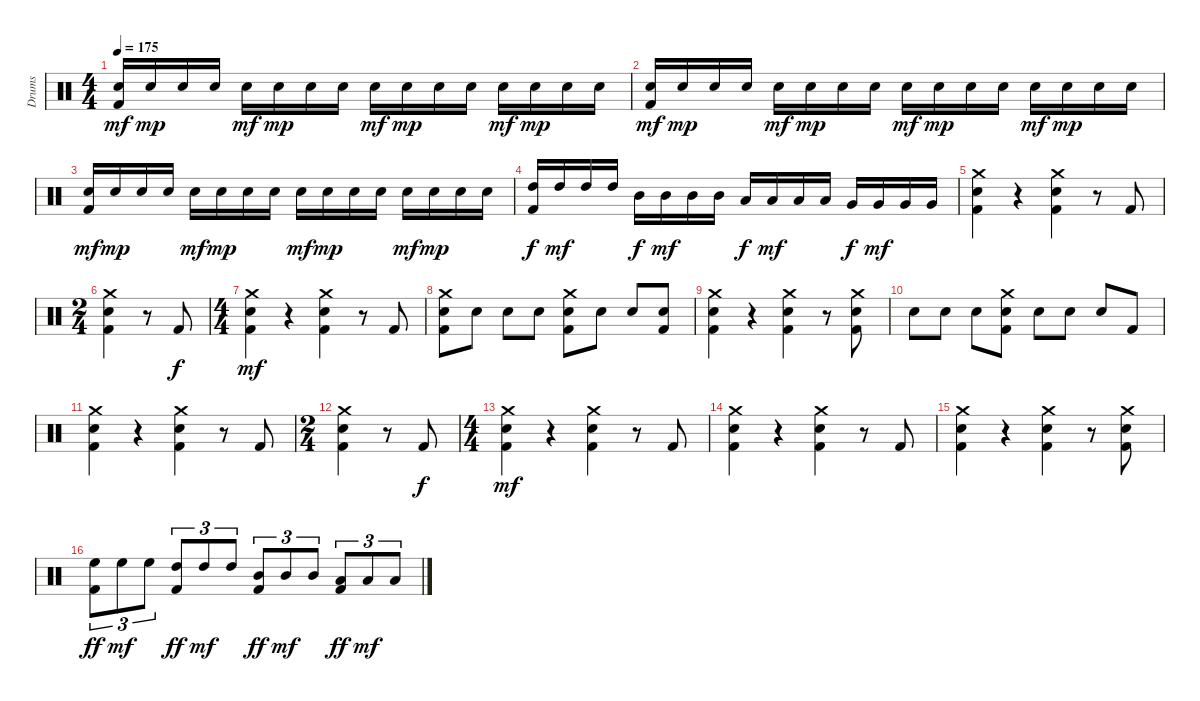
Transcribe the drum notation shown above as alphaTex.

\track ("Drums" "Drums") {instrument percussion}
\staff {score}
\articulation defaults
\ts (4 4)
\tempo 175
\clef neutral
\ks c
("Electric Snare (hit)" "Kick (hit) 2").16{dy mf} "Electric Snare (hit)".16{dy mp} "Electric Snare (hit)".16 "Electric Snare (hit)".16 "Electric Snare (hit)".16{dy mf} "Electric Snare (hit)".16{dy mp} "Electric Snare (hit)".16 "Electric Snare (hit)".16 "Electric Snare (hit)".16{dy mf} "Electric Snare (hit)".16{dy mp} "Electric Snare (hit)".16 "Electric Snare (hit)".16 "Electric Snare (hit)".16{dy mf} "Electric Snare (hit)".16{dy mp} "Electric Snare (hit)".16 "Electric Snare (hit)".16 |
("Electric Snare (hit)" "Kick (hit) 2").16{dy mf} "Electric Snare (hit)".16{dy mp} "Electric Snare (hit)".16 "Electric Snare (hit)".16 "Electric Snare (hit)".16{dy mf} "Electric Snare (hit)".16{dy mp} "Electric Snare (hit)".16 "Electric Snare (hit)".16 "Electric Snare (hit)".16{dy mf} "Electric Snare (hit)".16{dy mp} "Electric Snare (hit)".16 "Electric Snare (hit)".16 "Electric Snare (hit)".16{dy mf} "Electric Snare (hit)".16{dy mp} "Electric Snare (hit)".16 "Electric Snare (hit)".16 |
("Electric Snare (hit)" "Kick (hit) 2").16{dy mf} "Electric Snare (hit)".16{dy mp} "Electric Snare (hit)".16 "Electric Snare (hit)".16 "Electric Snare (hit)".16{dy mf} "Electric Snare (hit)".16{dy mp} "Electric Snare (hit)".16 "Electric Snare (hit)".16 "Electric Snare (hit)".16{dy mf} "Electric Snare (hit)".16{dy mp} "Electric Snare (hit)".16 "Electric Snare (hit)".16 "Electric Snare (hit)".16{dy mf} "Electric Snare (hit)".16{dy mp} "Electric Snare (hit)".16 "Electric Snare (hit)".16 |
("High Tom (hit)" "Kick (hit) 2").16{dy f} "High Tom (hit)".16{dy mf} "High Tom (hit)".16 "High Tom (hit)".16 "Mid Tom (hit)".16{dy f} "Mid Tom (hit)".16{dy mf} "Mid Tom (hit)".16 "Mid Tom (hit)".16 "Low Tom (hit)".16{dy f} "Low Tom (hit)".16{dy mf} "Low Tom (hit)".16 "Low Tom (hit)".16 "Very Low Tom (hit)".16{dy f} "Very Low Tom (hit)".16{dy mf} "Very Low Tom (hit)".16 "Very Low Tom (hit)".16 |
("Crash medium (hit)" "Electric Snare (hit)" "Kick (hit) 2").4 r.4 ("Crash medium (hit)" "Electric Snare (hit)" "Kick (hit) 2").4 r.8 "Kick (hit) 2".8 |
\ts (2 4)
("Crash medium (hit)" "Electric Snare (hit)" "Kick (hit) 2").4 r.8 "Kick (hit) 2".8{dy f} |
\ts (4 4)
("Crash medium (hit)" "Electric Snare (hit)" "Kick (hit) 2").4{dy mf} r.4 ("Crash medium (hit)" "Electric Snare (hit)" "Kick (hit) 2").4 r.8 "Kick (hit) 2".8 |
("Crash medium (hit)" "Electric Snare (hit)" "Kick (hit) 2").8 "Electric Snare (hit)".8 "Electric Snare (hit)".8 "Electric Snare (hit)".8 ("Crash medium (hit)" "Electric Snare (hit)" "Kick (hit) 2").8 "Electric Snare (hit)".8 "Electric Snare (hit)".8 ("Electric Snare (hit)" "Kick (hit) 2").8 |
("Crash medium (hit)" "Electric Snare (hit)" "Kick (hit) 2").4 r.4 ("Crash medium (hit)" "Electric Snare (hit)" "Kick (hit) 2").4 r.8 ("Crash medium (hit)" "Electric Snare (hit)" "Kick (hit) 2").8 |
"Electric Snare (hit)".8 "Electric Snare (hit)".8 "Electric Snare (hit)".8 ("Crash medium (hit)" "Electric Snare (hit)" "Kick (hit) 2").8 "Electric Snare (hit)".8 "Electric Snare (hit)".8 "Electric Snare (hit)".8 "Kick (hit) 2".8 |
("Crash medium (hit)" "Electric Snare (hit)" "Kick (hit) 2").4 r.4 ("Crash medium (hit)" "Electric Snare (hit)" "Kick (hit) 2").4 r.8 "Kick (hit) 2".8 |
\ts (2 4)
("Crash medium (hit)" "Electric Snare (hit)" "Kick (hit) 2").4 r.8 "Kick (hit) 2".8{dy f} |
\ts (4 4)
("Crash medium (hit)" "Electric Snare (hit)" "Kick (hit) 2").4{dy mf} r.4 ("Crash medium (hit)" "Electric Snare (hit)" "Kick (hit) 2").4 r.8 "Kick (hit) 2".8 |
("Crash medium (hit)" "Electric Snare (hit)" "Kick (hit) 2").4 r.4 ("Crash medium (hit)" "Electric Snare (hit)" "Kick (hit) 2").4 r.8 "Kick (hit) 2".8 |
("Crash medium (hit)" "Electric Snare (hit)" "Kick (hit) 2").4 r.4 ("Crash medium (hit)" "Electric Snare (hit)" "Kick (hit) 2").4 r.8 ("Crash medium (hit)" "Electric Snare (hit)" "Kick (hit) 2").8 |
("High Floor Tom (hit)" "Kick (hit) 2").8{tu (3 2) dy ff} "High Floor Tom (hit)".8{tu (3 2) dy mf} "High Floor Tom (hit)".8{tu (3 2)} ("High Tom (hit)" "Kick (hit) 2").8{tu (3 2) dy ff} "High Tom (hit)".8{tu (3 2) dy mf} "High Tom (hit)".8{tu (3 2)} ("Mid Tom (hit)" "Kick (hit) 2").8{tu (3 2) dy ff} "Mid Tom (hit)".8{tu (3 2) dy mf} "Mid Tom (hit)".8{tu (3 2)} ("Low Tom (hit)" "Kick (hit) 2").8{tu (3 2) dy ff} "Low Tom (hit)".8{tu (3 2) dy mf} "Low Tom (hit)".8{tu (3 2)}
